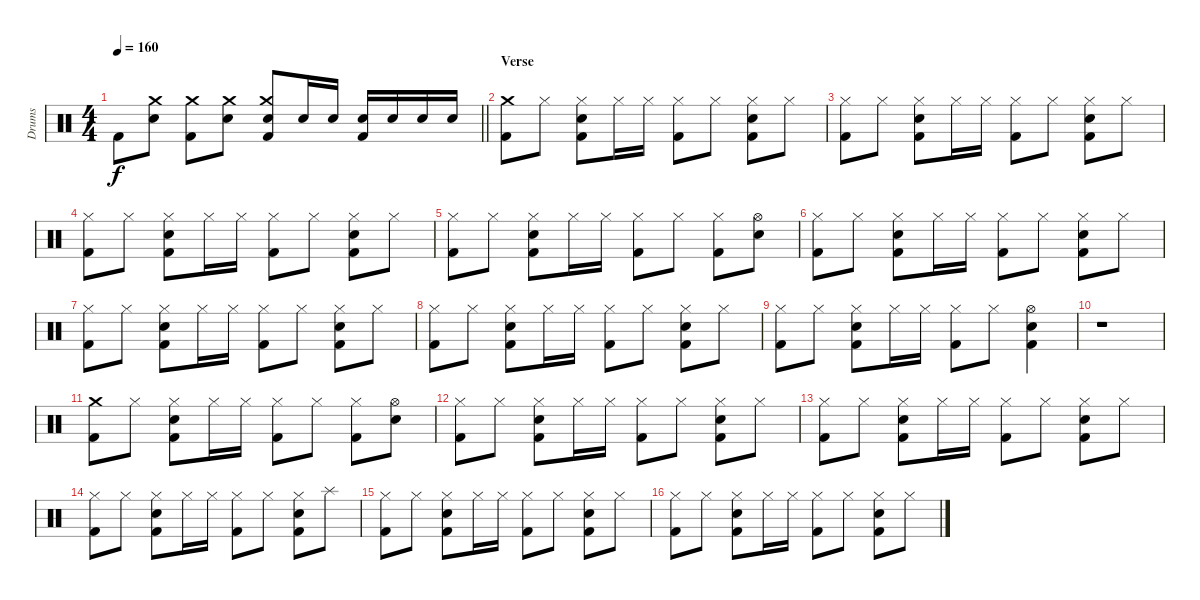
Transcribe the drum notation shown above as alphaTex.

\track ("Drums" "Drums") {instrument percussion}
\staff {score}
\articulation defaults
\ts (4 4)
\tempo 160
\clef neutral
\barLineRight lightlight
\ks c "Kick (hit) 2".8{dy f}
("Crash medium (hit)" "Snare (hit) 2").8 ("Crash medium (hit)" "Kick (hit) 2").8 ("Crash medium (hit)" "Snare (hit) 2").8 ("Crash medium (hit)" "Snare (hit) 2" "Kick (hit) 2").8 "Snare (hit) 2".16 "Snare (hit) 2".16 ("Snare (hit) 2" "Kick (hit) 2").16 "Snare (hit) 2".16 "Snare (hit) 2".16 "Snare (hit) 2".16 |
\section ("" "Verse")
("Crash medium (hit)" "Kick (hit) 2").8 "Hi-Hat (closed)".8 ("Hi-Hat (closed)" "Snare (hit) 2" "Kick (hit) 2").8 "Hi-Hat (closed)".16 "Hi-Hat (closed)".16 ("Hi-Hat (closed)" "Kick (hit) 2").8 "Hi-Hat (closed)".8 ("Hi-Hat (closed)" "Snare (hit) 2" "Kick (hit) 2").8 "Hi-Hat (closed)".8 |
("Hi-Hat (closed)" "Kick (hit) 2").8 "Hi-Hat (closed)".8 ("Hi-Hat (closed)" "Snare (hit) 2" "Kick (hit) 2").8 "Hi-Hat (closed)".16 "Hi-Hat (closed)".16 ("Hi-Hat (closed)" "Kick (hit) 2").8 "Hi-Hat (closed)".8 ("Hi-Hat (closed)" "Snare (hit) 2" "Kick (hit) 2").8 "Hi-Hat (closed)".8 |
("Hi-Hat (closed)" "Kick (hit) 2").8 "Hi-Hat (closed)".8 ("Hi-Hat (closed)" "Snare (hit) 2" "Kick (hit) 2").8 "Hi-Hat (closed)".16 "Hi-Hat (closed)".16 ("Hi-Hat (closed)" "Kick (hit) 2").8 "Hi-Hat (closed)".8 ("Hi-Hat (closed)" "Snare (hit) 2" "Kick (hit) 2").8 "Hi-Hat (closed)".8 |
("Hi-Hat (closed)" "Kick (hit) 2").8 "Hi-Hat (closed)".8 ("Hi-Hat (closed)" "Snare (hit) 2" "Kick (hit) 2").8 "Hi-Hat (closed)".16 "Hi-Hat (closed)".16 ("Hi-Hat (closed)" "Kick (hit) 2").8 "Hi-Hat (closed)".8 ("Hi-Hat (closed)" "Kick (hit) 2").8 ("Hi-Hat (open)" "Snare (hit) 2").8 |
("Hi-Hat (closed)" "Kick (hit) 2").8 "Hi-Hat (closed)".8 ("Hi-Hat (closed)" "Snare (hit) 2" "Kick (hit) 2").8 "Hi-Hat (closed)".16 "Hi-Hat (closed)".16 ("Hi-Hat (closed)" "Kick (hit) 2").8 "Hi-Hat (closed)".8 ("Hi-Hat (closed)" "Snare (hit) 2" "Kick (hit) 2").8 "Hi-Hat (closed)".8 |
("Hi-Hat (closed)" "Kick (hit) 2").8 "Hi-Hat (closed)".8 ("Hi-Hat (closed)" "Snare (hit) 2" "Kick (hit) 2").8 "Hi-Hat (closed)".16 "Hi-Hat (closed)".16 ("Hi-Hat (closed)" "Kick (hit) 2").8 "Hi-Hat (closed)".8 ("Hi-Hat (closed)" "Snare (hit) 2" "Kick (hit) 2").8 "Hi-Hat (closed)".8 |
("Hi-Hat (closed)" "Kick (hit) 2").8 "Hi-Hat (closed)".8 ("Hi-Hat (closed)" "Snare (hit) 2" "Kick (hit) 2").8 "Hi-Hat (closed)".16 "Hi-Hat (closed)".16 ("Hi-Hat (closed)" "Kick (hit) 2").8 "Hi-Hat (closed)".8 ("Hi-Hat (closed)" "Snare (hit) 2" "Kick (hit) 2").8 "Hi-Hat (closed)".8 |
("Hi-Hat (closed)" "Kick (hit) 2").8 "Hi-Hat (closed)".8 ("Hi-Hat (closed)" "Snare (hit) 2" "Kick (hit) 2").8 "Hi-Hat (closed)".16 "Hi-Hat (closed)".16 ("Hi-Hat (closed)" "Kick (hit) 2").8 "Hi-Hat (closed)".8 ("Hi-Hat (open)" "Snare (hit) 2" "Kick (hit) 2").4 |
r.1 |
("Crash medium (hit)" "Kick (hit) 2").8 "Hi-Hat (closed)".8 ("Hi-Hat (closed)" "Snare (hit) 2" "Kick (hit) 2").8 "Hi-Hat (closed)".16 "Hi-Hat (closed)".16 ("Hi-Hat (closed)" "Kick (hit) 2").8 "Hi-Hat (closed)".8 ("Hi-Hat (closed)" "Kick (hit) 2").8 ("Hi-Hat (open)" "Snare (hit) 2").8 |
("Hi-Hat (closed)" "Kick (hit) 2").8 "Hi-Hat (closed)".8 ("Hi-Hat (closed)" "Snare (hit) 2" "Kick (hit) 2").8 "Hi-Hat (closed)".16 "Hi-Hat (closed)".16 ("Hi-Hat (closed)" "Kick (hit) 2").8 "Hi-Hat (closed)".8 ("Hi-Hat (closed)" "Snare (hit) 2" "Kick (hit) 2").8 "Hi-Hat (closed)".8 |
("Hi-Hat (closed)" "Kick (hit) 2").8 "Hi-Hat (closed)".8 ("Hi-Hat (closed)" "Snare (hit) 2" "Kick (hit) 2").8 "Hi-Hat (closed)".16 "Hi-Hat (closed)".16 ("Hi-Hat (closed)" "Kick (hit) 2").8 "Hi-Hat (closed)".8 ("Hi-Hat (closed)" "Snare (hit) 2" "Kick (hit) 2").8 "Hi-Hat (closed)".8 |
("Hi-Hat (closed)" "Kick (hit) 2").8 "Hi-Hat (closed)".8 ("Hi-Hat (closed)" "Snare (hit) 2" "Kick (hit) 2").8 "Hi-Hat (closed)".16 "Hi-Hat (closed)".16 ("Hi-Hat (closed)" "Kick (hit) 2").8 "Hi-Hat (closed)".8 ("Hi-Hat (closed)" "Snare (hit) 2" "Kick (hit) 2").8 "Splash (hit)".8 |
("Hi-Hat (closed)" "Kick (hit) 2").8 "Hi-Hat (closed)".8 ("Hi-Hat (closed)" "Snare (hit) 2" "Kick (hit) 2").8 "Hi-Hat (closed)".16 "Hi-Hat (closed)".16 ("Hi-Hat (closed)" "Kick (hit) 2").8 "Hi-Hat (closed)".8 ("Hi-Hat (closed)" "Snare (hit) 2" "Kick (hit) 2").8 "Hi-Hat (closed)".8 |
("Hi-Hat (closed)" "Kick (hit) 2").8 "Hi-Hat (closed)".8 ("Hi-Hat (closed)" "Snare (hit) 2" "Kick (hit) 2").8 "Hi-Hat (closed)".16 "Hi-Hat (closed)".16 ("Hi-Hat (closed)" "Kick (hit) 2").8 "Hi-Hat (closed)".8 ("Hi-Hat (closed)" "Snare (hit) 2" "Kick (hit) 2").8 "Hi-Hat (closed)".8
